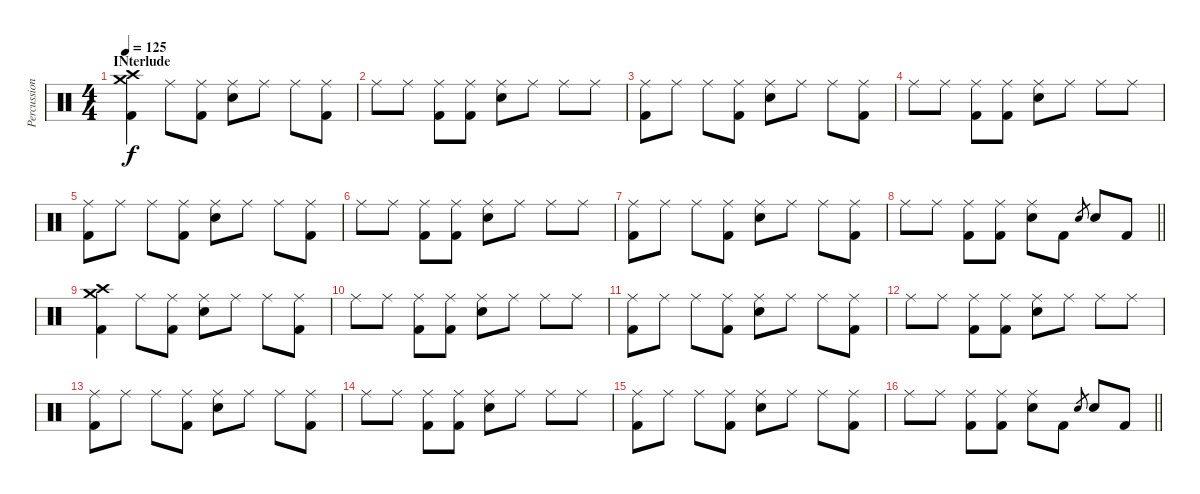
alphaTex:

\track ("Percussion" "Percussion") {instrument percussion}
\staff {score}
\articulation defaults
\ts (4 4)
\section ("" "INterlude")
\tempo 125
\clef neutral
\ks c
("Crash high (hit)" "Crash medium (hit)" "Kick (hit) 2").4{dy f} "Ride (middle)".8 ("Ride (middle)" "Kick (hit) 2").8 ("Ride (middle)" "Electric Snare (hit)").8 "Ride (middle)".8 "Ride (middle)".8 ("Ride (middle)" "Kick (hit) 2").8 |
"Ride (middle)".8 "Ride (middle)".8 ("Ride (middle)" "Kick (hit) 2").8 ("Ride (middle)" "Kick (hit) 2").8 ("Ride (middle)" "Electric Snare (hit)").8 "Ride (middle)".8 "Ride (middle)".8 "Ride (middle)".8 |
("Ride (middle)" "Kick (hit) 2").8 "Ride (middle)".8 "Ride (middle)".8 ("Ride (middle)" "Kick (hit) 2").8 ("Ride (middle)" "Electric Snare (hit)").8 "Ride (middle)".8 "Ride (middle)".8 ("Ride (middle)" "Kick (hit) 2").8 |
"Ride (middle)".8 "Ride (middle)".8 ("Ride (middle)" "Kick (hit) 2").8 ("Ride (middle)" "Kick (hit) 2").8 ("Ride (middle)" "Electric Snare (hit)").8 "Ride (middle)".8 "Ride (middle)".8 "Ride (middle)".8 |
("Ride (middle)" "Kick (hit) 2").8 "Ride (middle)".8 "Ride (middle)".8 ("Ride (middle)" "Kick (hit) 2").8 ("Ride (middle)" "Electric Snare (hit)").8 "Ride (middle)".8 "Ride (middle)".8 ("Ride (middle)" "Kick (hit) 2").8 |
"Ride (middle)".8 "Ride (middle)".8 ("Ride (middle)" "Kick (hit) 2").8 ("Ride (middle)" "Kick (hit) 2").8 ("Ride (middle)" "Electric Snare (hit)").8 "Ride (middle)".8 "Ride (middle)".8 "Ride (middle)".8 |
("Ride (middle)" "Kick (hit) 2").8 "Ride (middle)".8 "Ride (middle)".8 ("Ride (middle)" "Kick (hit) 2").8 ("Ride (middle)" "Electric Snare (hit)").8 "Ride (middle)".8 "Ride (middle)".8 ("Ride (middle)" "Kick (hit) 2").8 |
\barLineRight lightlight "Ride (middle)".8 "Ride (middle)".8
("Ride (middle)" "Kick (hit) 2").8 ("Ride (middle)" "Kick (hit) 2").8 ("Ride (middle)" "Electric Snare (hit)").8 "Kick (hit) 2".8 "Electric Snare (hit)".8{gr} "Electric Snare (hit)".8 "Kick (hit) 2".8 |
("Crash high (hit)" "Crash medium (hit)" "Kick (hit) 2").4 "Ride (middle)".8 ("Ride (middle)" "Kick (hit) 2").8 ("Ride (middle)" "Electric Snare (hit)").8 "Ride (middle)".8 "Ride (middle)".8 ("Ride (middle)" "Kick (hit) 2").8 |
"Ride (middle)".8 "Ride (middle)".8 ("Ride (middle)" "Kick (hit) 2").8 ("Ride (middle)" "Kick (hit) 2").8 ("Ride (middle)" "Electric Snare (hit)").8 "Ride (middle)".8 "Ride (middle)".8 "Ride (middle)".8 |
("Ride (middle)" "Kick (hit) 2").8 "Ride (middle)".8 "Ride (middle)".8 ("Ride (middle)" "Kick (hit) 2").8 ("Ride (middle)" "Electric Snare (hit)").8 "Ride (middle)".8 "Ride (middle)".8 ("Ride (middle)" "Kick (hit) 2").8 |
"Ride (middle)".8 "Ride (middle)".8 ("Ride (middle)" "Kick (hit) 2").8 ("Ride (middle)" "Kick (hit) 2").8 ("Ride (middle)" "Electric Snare (hit)").8 "Ride (middle)".8 "Ride (middle)".8 "Ride (middle)".8 |
("Ride (middle)" "Kick (hit) 2").8 "Ride (middle)".8 "Ride (middle)".8 ("Ride (middle)" "Kick (hit) 2").8 ("Ride (middle)" "Electric Snare (hit)").8 "Ride (middle)".8 "Ride (middle)".8 ("Ride (middle)" "Kick (hit) 2").8 |
"Ride (middle)".8 "Ride (middle)".8 ("Ride (middle)" "Kick (hit) 2").8 ("Ride (middle)" "Kick (hit) 2").8 ("Ride (middle)" "Electric Snare (hit)").8 "Ride (middle)".8 "Ride (middle)".8 "Ride (middle)".8 |
("Ride (middle)" "Kick (hit) 2").8 "Ride (middle)".8 "Ride (middle)".8 ("Ride (middle)" "Kick (hit) 2").8 ("Ride (middle)" "Electric Snare (hit)").8 "Ride (middle)".8 "Ride (middle)".8 ("Ride (middle)" "Kick (hit) 2").8 |
\barLineRight lightlight "Ride (middle)".8 "Ride (middle)".8
("Ride (middle)" "Kick (hit) 2").8 ("Ride (middle)" "Kick (hit) 2").8 ("Ride (middle)" "Electric Snare (hit)").8 "Kick (hit) 2".8 "Electric Snare (hit)".8{gr} "Electric Snare (hit)".8 "Kick (hit) 2".8
